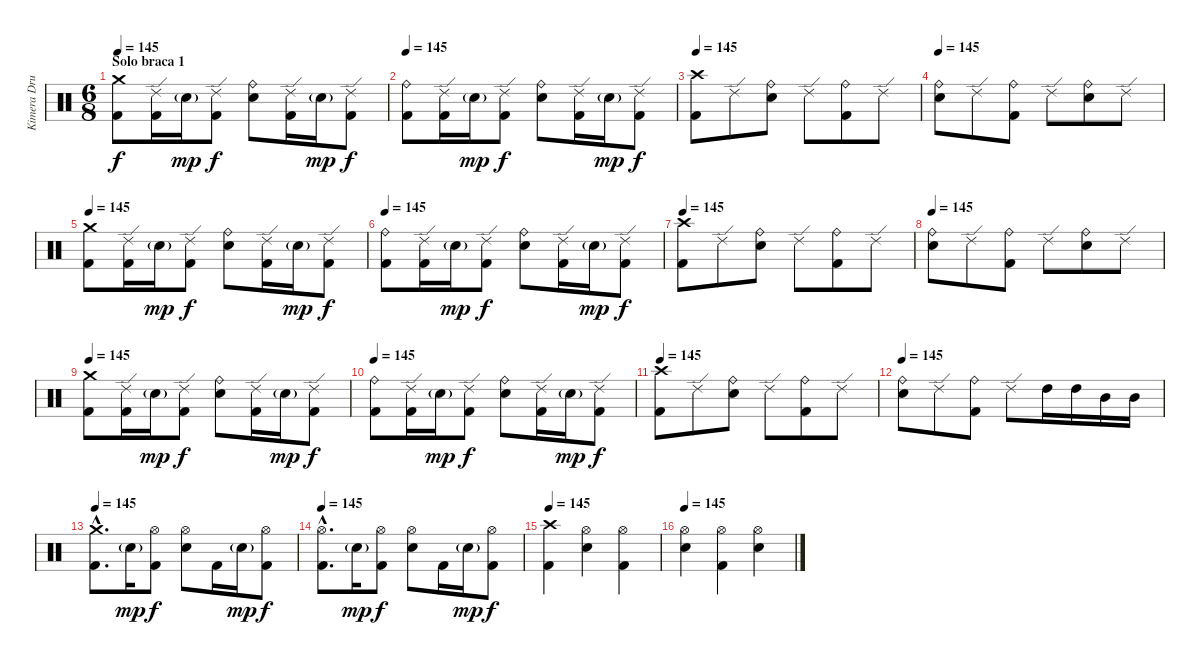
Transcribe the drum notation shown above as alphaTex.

\track ("Kimera Drummer" "Kimera Dru") {instrument percussion}
\staff {score}
\articulation defaults
\ts (6 8)
\section ("" "Solo braca 1")
\tempo 145
\clef neutral
\ks c
("Crash medium (hit)" "Kick (hit) 2").8{dy f} ("Ride (edge) 2" "Kick (hit) 2").16 "Electric Snare (hit)"{g}.16{dy mp} ("Ride (edge) 2" "Kick (hit) 2").8{dy f} ("Ride (bell)" "Electric Snare (hit)").8 ("Ride (edge) 2" "Kick (hit) 2").16 "Electric Snare (hit)"{g}.16{dy mp} ("Ride (edge) 2" "Kick (hit) 2").8{dy f} |
\tempo 145
("Ride (bell)" "Kick (hit) 2").8 ("Ride (edge) 2" "Kick (hit) 2").16 "Electric Snare (hit)"{g}.16{dy mp} ("Ride (edge) 2" "Kick (hit) 2").8{dy f} ("Ride (bell)" "Electric Snare (hit)").8 ("Ride (edge) 2" "Kick (hit) 2").16 "Electric Snare (hit)"{g}.16{dy mp} ("Ride (edge) 2" "Kick (hit) 2").8{dy f} |
\tempo 145
("Crash high (hit)" "Kick (hit) 2").8 "Ride (edge) 2".8 ("Ride (bell)" "Electric Snare (hit)").8 "Ride (edge) 2".8 ("Ride (bell)" "Kick (hit) 2").8 "Ride (edge) 2".8 |
\tempo 145
("Ride (bell)" "Electric Snare (hit)").8 "Ride (edge) 2".8 ("Ride (bell)" "Kick (hit) 2").8 "Ride (edge) 2".8 ("Ride (bell)" "Electric Snare (hit)").8 "Ride (edge) 2".8 |
\tempo 145
("Crash medium (hit)" "Kick (hit) 2").8 ("Ride (edge) 2" "Kick (hit) 2").16 "Electric Snare (hit)"{g}.16{dy mp} ("Ride (edge) 2" "Kick (hit) 2").8{dy f} ("Ride (bell)" "Electric Snare (hit)").8 ("Ride (edge) 2" "Kick (hit) 2").16 "Electric Snare (hit)"{g}.16{dy mp} ("Ride (edge) 2" "Kick (hit) 2").8{dy f} |
\tempo 145
("Ride (bell)" "Kick (hit) 2").8 ("Ride (edge) 2" "Kick (hit) 2").16 "Electric Snare (hit)"{g}.16{dy mp} ("Ride (edge) 2" "Kick (hit) 2").8{dy f} ("Ride (bell)" "Electric Snare (hit)").8 ("Ride (edge) 2" "Kick (hit) 2").16 "Electric Snare (hit)"{g}.16{dy mp} ("Ride (edge) 2" "Kick (hit) 2").8{dy f} |
\tempo 145
("Crash high (hit)" "Kick (hit) 2").8 "Ride (edge) 2".8 ("Ride (bell)" "Electric Snare (hit)").8 "Ride (edge) 2".8 ("Ride (bell)" "Kick (hit) 2").8 "Ride (edge) 2".8 |
\tempo 145
("Ride (bell)" "Electric Snare (hit)").8 "Ride (edge) 2".8 ("Ride (bell)" "Kick (hit) 2").8 "Ride (edge) 2".8 ("Ride (bell)" "Electric Snare (hit)").8 "Ride (edge) 2".8 |
\tempo 145
("Crash medium (hit)" "Kick (hit) 2").8 ("Ride (edge) 2" "Kick (hit) 2").16 "Electric Snare (hit)"{g}.16{dy mp} ("Ride (edge) 2" "Kick (hit) 2").8{dy f} ("Ride (bell)" "Electric Snare (hit)").8 ("Ride (edge) 2" "Kick (hit) 2").16 "Electric Snare (hit)"{g}.16{dy mp} ("Ride (edge) 2" "Kick (hit) 2").8{dy f} |
\tempo 145
("Ride (bell)" "Kick (hit) 2").8 ("Ride (edge) 2" "Kick (hit) 2").16 "Electric Snare (hit)"{g}.16{dy mp} ("Ride (edge) 2" "Kick (hit) 2").8{dy f} ("Ride (bell)" "Electric Snare (hit)").8 ("Ride (edge) 2" "Kick (hit) 2").16 "Electric Snare (hit)"{g}.16{dy mp} ("Ride (edge) 2" "Kick (hit) 2").8{dy f} |
\tempo 145
("Crash high (hit)" "Kick (hit) 2").8 "Ride (edge) 2".8 ("Ride (bell)" "Electric Snare (hit)").8 "Ride (edge) 2".8 ("Ride (bell)" "Kick (hit) 2").8 "Ride (edge) 2".8 |
\tempo 145
("Ride (bell)" "Electric Snare (hit)").8 "Ride (edge) 2".8 ("Ride (bell)" "Kick (hit) 2").8 "Ride (edge) 2".8 "High Tom (hit)".16 "High Tom (hit)".16 "Mid Tom (hit)".16 "Mid Tom (hit)".16 |
\tempo 145
("Crash medium (hit)"{hac} "Kick (hit) 2"{hac}).8{d} "Electric Snare (hit)"{g}.16{dy mp} ("Hi-Hat (open)" "Kick (hit) 2").8{dy f} ("Hi-Hat (open)" "Electric Snare (hit)").8 "Kick (hit) 2".16 "Electric Snare (hit)"{g}.16{dy mp} ("Hi-Hat (open)" "Kick (hit) 2").8{dy f} |
\tempo 145
("Hi-Hat (open)"{hac} "Kick (hit) 2"{hac}).8{d} "Electric Snare (hit)"{g}.16{dy mp} ("Hi-Hat (open)" "Kick (hit) 2").8{dy f} ("Hi-Hat (open)" "Electric Snare (hit)").8 "Kick (hit) 2".16 "Electric Snare (hit)"{g}.16{dy mp} ("Hi-Hat (open)" "Kick (hit) 2").8{dy f} |
\tempo 145
("Crash high (hit)" "Kick (hit) 2").4 ("Hi-Hat (open)" "Electric Snare (hit)").4 ("Hi-Hat (open)" "Kick (hit) 2").4 |
\tempo 145
("Hi-Hat (open)" "Electric Snare (hit)").4 ("Hi-Hat (open)" "Kick (hit) 2").4 ("Hi-Hat (open)" "Electric Snare (hit)").4
